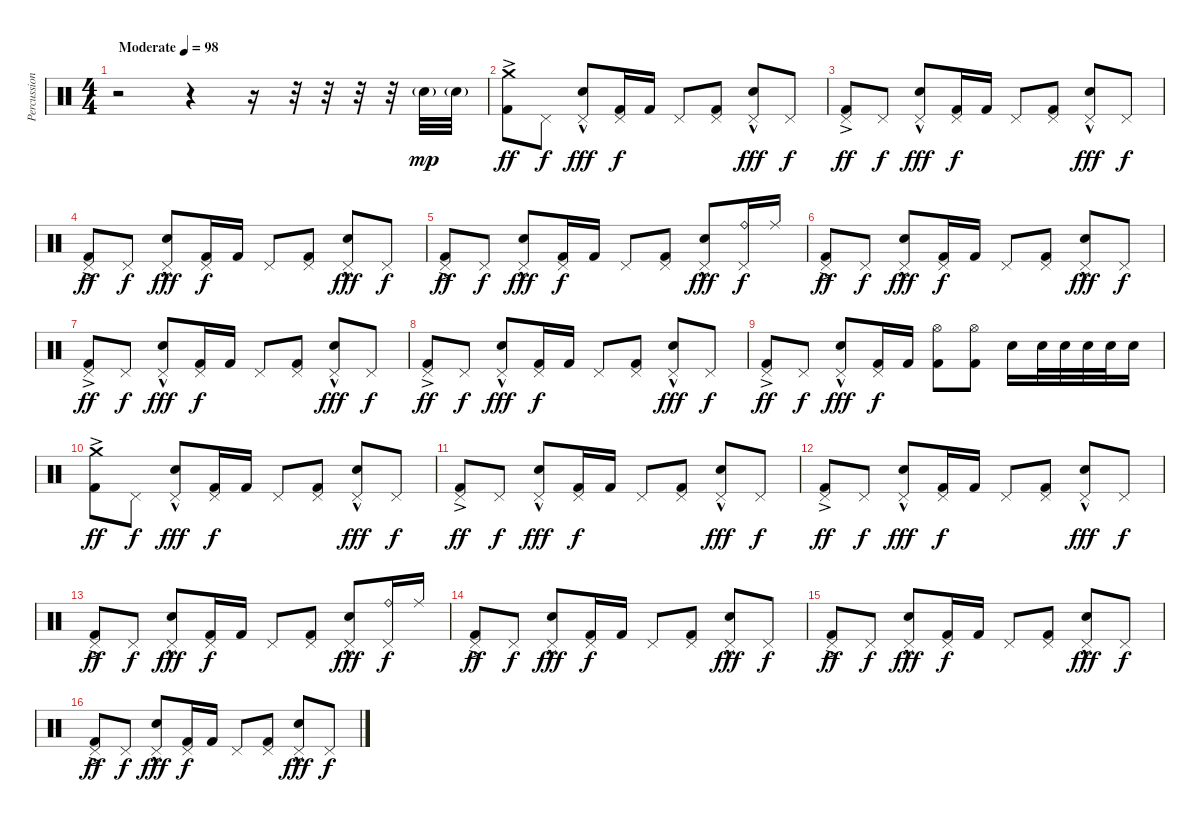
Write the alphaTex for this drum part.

\track ("Percussion" "Percussion") {instrument percussion}
\staff {score}
\articulation defaults
\ts (4 4)
\tempo (98 "Moderate")
\clef neutral
\ks c
r.2{dy mp} r.4 r.16 r.32 r.32 r.32 r.32 "Electric Snare (hit)"{g}.32 "Electric Snare (hit)"{g}.32 |
("Crash medium (hit)" "Kick (hit) 2"{ac}).8{dy ff} "Pedal Hi-Hat (hit)".8{dy f} ("Pedal Hi-Hat (hit)"{hac} "Electric Snare (hit)").8{dy fff} ("Pedal Hi-Hat (hit)" "Kick (hit) 2").16{dy f} "Kick (hit) 2".16 "Pedal Hi-Hat (hit)".8 ("Pedal Hi-Hat (hit)" "Kick (hit) 2").8 ("Pedal Hi-Hat (hit)"{hac} "Electric Snare (hit)").8{dy fff} "Pedal Hi-Hat (hit)".8{dy f} |
("Pedal Hi-Hat (hit)"{ac} "Kick (hit) 2").8{dy ff} "Pedal Hi-Hat (hit)".8{dy f} ("Pedal Hi-Hat (hit)"{hac} "Electric Snare (hit)").8{dy fff} ("Pedal Hi-Hat (hit)" "Kick (hit) 2").16{dy f} "Kick (hit) 2".16 "Pedal Hi-Hat (hit)".8 ("Pedal Hi-Hat (hit)" "Kick (hit) 2").8 ("Pedal Hi-Hat (hit)"{hac} "Electric Snare (hit)").8{dy fff} "Pedal Hi-Hat (hit)".8{dy f} |
("Pedal Hi-Hat (hit)"{ac} "Kick (hit) 2").8{dy ff} "Pedal Hi-Hat (hit)".8{dy f} ("Pedal Hi-Hat (hit)"{hac} "Electric Snare (hit)").8{dy fff} ("Pedal Hi-Hat (hit)" "Kick (hit) 2").16{dy f} "Kick (hit) 2".16 "Pedal Hi-Hat (hit)".8 ("Pedal Hi-Hat (hit)" "Kick (hit) 2").8 ("Pedal Hi-Hat (hit)"{hac} "Electric Snare (hit)").8{dy fff} "Pedal Hi-Hat (hit)".8{dy f} |
("Pedal Hi-Hat (hit)"{ac} "Kick (hit) 2").8{dy ff} "Pedal Hi-Hat (hit)".8{dy f} ("Pedal Hi-Hat (hit)"{hac} "Electric Snare (hit)").8{dy fff} ("Pedal Hi-Hat (hit)" "Kick (hit) 2").16{dy f} "Kick (hit) 2".16 "Pedal Hi-Hat (hit)".8 ("Pedal Hi-Hat (hit)" "Kick (hit) 2").8 ("Pedal Hi-Hat (hit)"{hac} "Electric Snare (hit)").8{dy fff} ("Pedal Hi-Hat (hit)" "Ride (bell)").16{dy f} "Ride (middle)".16 |
("Pedal Hi-Hat (hit)" "Kick (hit) 2"{ac}).8{dy ff} "Pedal Hi-Hat (hit)".8{dy f} ("Pedal Hi-Hat (hit)"{hac} "Electric Snare (hit)").8{dy fff} ("Pedal Hi-Hat (hit)" "Kick (hit) 2").16{dy f} "Kick (hit) 2".16 "Pedal Hi-Hat (hit)".8 ("Pedal Hi-Hat (hit)" "Kick (hit) 2").8 ("Pedal Hi-Hat (hit)"{hac} "Electric Snare (hit)").8{dy fff} "Pedal Hi-Hat (hit)".8{dy f} |
("Pedal Hi-Hat (hit)"{ac} "Kick (hit) 2").8{dy ff} "Pedal Hi-Hat (hit)".8{dy f} ("Pedal Hi-Hat (hit)"{hac} "Electric Snare (hit)").8{dy fff} ("Pedal Hi-Hat (hit)" "Kick (hit) 2").16{dy f} "Kick (hit) 2".16 "Pedal Hi-Hat (hit)".8 ("Pedal Hi-Hat (hit)" "Kick (hit) 2").8 ("Pedal Hi-Hat (hit)"{hac} "Electric Snare (hit)").8{dy fff} "Pedal Hi-Hat (hit)".8{dy f} |
("Pedal Hi-Hat (hit)"{ac} "Kick (hit) 2").8{dy ff} "Pedal Hi-Hat (hit)".8{dy f} ("Pedal Hi-Hat (hit)"{hac} "Electric Snare (hit)").8{dy fff} ("Pedal Hi-Hat (hit)" "Kick (hit) 2").16{dy f} "Kick (hit) 2".16 "Pedal Hi-Hat (hit)".8 ("Pedal Hi-Hat (hit)" "Kick (hit) 2").8 ("Pedal Hi-Hat (hit)"{hac} "Electric Snare (hit)").8{dy fff} "Pedal Hi-Hat (hit)".8{dy f} |
("Pedal Hi-Hat (hit)"{ac} "Kick (hit) 2").8{dy ff} "Pedal Hi-Hat (hit)".8{dy f} ("Pedal Hi-Hat (hit)"{hac} "Electric Snare (hit)").8{dy fff} ("Pedal Hi-Hat (hit)" "Kick (hit) 2").16{dy f} "Kick (hit) 2".16 ("Hi-Hat (open)" "Kick (hit) 2").8 ("Hi-Hat (open)" "Kick (hit) 2").8 "Electric Snare (hit)".16 "Electric Snare (hit)".32 "Electric Snare (hit)".32 "Electric Snare (hit)".32 "Electric Snare (hit)".32 "Electric Snare (hit)".16 |
("Crash medium (hit)" "Kick (hit) 2"{ac}).8{dy ff} "Pedal Hi-Hat (hit)".8{dy f} ("Pedal Hi-Hat (hit)"{hac} "Electric Snare (hit)").8{dy fff} ("Pedal Hi-Hat (hit)" "Kick (hit) 2").16{dy f} "Kick (hit) 2".16 "Pedal Hi-Hat (hit)".8 ("Pedal Hi-Hat (hit)" "Kick (hit) 2").8 ("Pedal Hi-Hat (hit)"{hac} "Electric Snare (hit)").8{dy fff} "Pedal Hi-Hat (hit)".8{dy f} |
("Pedal Hi-Hat (hit)"{ac} "Kick (hit) 2").8{dy ff} "Pedal Hi-Hat (hit)".8{dy f} ("Pedal Hi-Hat (hit)"{hac} "Electric Snare (hit)").8{dy fff} ("Pedal Hi-Hat (hit)" "Kick (hit) 2").16{dy f} "Kick (hit) 2".16 "Pedal Hi-Hat (hit)".8 ("Pedal Hi-Hat (hit)" "Kick (hit) 2").8 ("Pedal Hi-Hat (hit)"{hac} "Electric Snare (hit)").8{dy fff} "Pedal Hi-Hat (hit)".8{dy f} |
("Pedal Hi-Hat (hit)"{ac} "Kick (hit) 2").8{dy ff} "Pedal Hi-Hat (hit)".8{dy f} ("Pedal Hi-Hat (hit)"{hac} "Electric Snare (hit)").8{dy fff} ("Pedal Hi-Hat (hit)" "Kick (hit) 2").16{dy f} "Kick (hit) 2".16 "Pedal Hi-Hat (hit)".8 ("Pedal Hi-Hat (hit)" "Kick (hit) 2").8 ("Pedal Hi-Hat (hit)"{hac} "Electric Snare (hit)").8{dy fff} "Pedal Hi-Hat (hit)".8{dy f} |
("Pedal Hi-Hat (hit)"{ac} "Kick (hit) 2").8{dy ff} "Pedal Hi-Hat (hit)".8{dy f} ("Pedal Hi-Hat (hit)"{hac} "Electric Snare (hit)").8{dy fff} ("Pedal Hi-Hat (hit)" "Kick (hit) 2").16{dy f} "Kick (hit) 2".16 "Pedal Hi-Hat (hit)".8 ("Pedal Hi-Hat (hit)" "Kick (hit) 2").8 ("Pedal Hi-Hat (hit)"{hac} "Electric Snare (hit)").8{dy fff} ("Pedal Hi-Hat (hit)" "Ride (bell)").16{dy f} "Ride (middle)".16 |
("Pedal Hi-Hat (hit)" "Kick (hit) 2"{ac}).8{dy ff} "Pedal Hi-Hat (hit)".8{dy f} ("Pedal Hi-Hat (hit)"{hac} "Electric Snare (hit)").8{dy fff} ("Pedal Hi-Hat (hit)" "Kick (hit) 2").16{dy f} "Kick (hit) 2".16 "Pedal Hi-Hat (hit)".8 ("Pedal Hi-Hat (hit)" "Kick (hit) 2").8 ("Pedal Hi-Hat (hit)"{hac} "Electric Snare (hit)").8{dy fff} "Pedal Hi-Hat (hit)".8{dy f} |
("Pedal Hi-Hat (hit)"{ac} "Kick (hit) 2").8{dy ff} "Pedal Hi-Hat (hit)".8{dy f} ("Pedal Hi-Hat (hit)"{hac} "Electric Snare (hit)").8{dy fff} ("Pedal Hi-Hat (hit)" "Kick (hit) 2").16{dy f} "Kick (hit) 2".16 "Pedal Hi-Hat (hit)".8 ("Pedal Hi-Hat (hit)" "Kick (hit) 2").8 ("Pedal Hi-Hat (hit)"{hac} "Electric Snare (hit)").8{dy fff} "Pedal Hi-Hat (hit)".8{dy f} |
("Pedal Hi-Hat (hit)"{ac} "Kick (hit) 2").8{dy ff} "Pedal Hi-Hat (hit)".8{dy f} ("Pedal Hi-Hat (hit)"{hac} "Electric Snare (hit)").8{dy fff} ("Pedal Hi-Hat (hit)" "Kick (hit) 2").16{dy f} "Kick (hit) 2".16 "Pedal Hi-Hat (hit)".8 ("Pedal Hi-Hat (hit)" "Kick (hit) 2").8 ("Pedal Hi-Hat (hit)"{hac} "Electric Snare (hit)").8{dy fff} "Pedal Hi-Hat (hit)".8{dy f}
